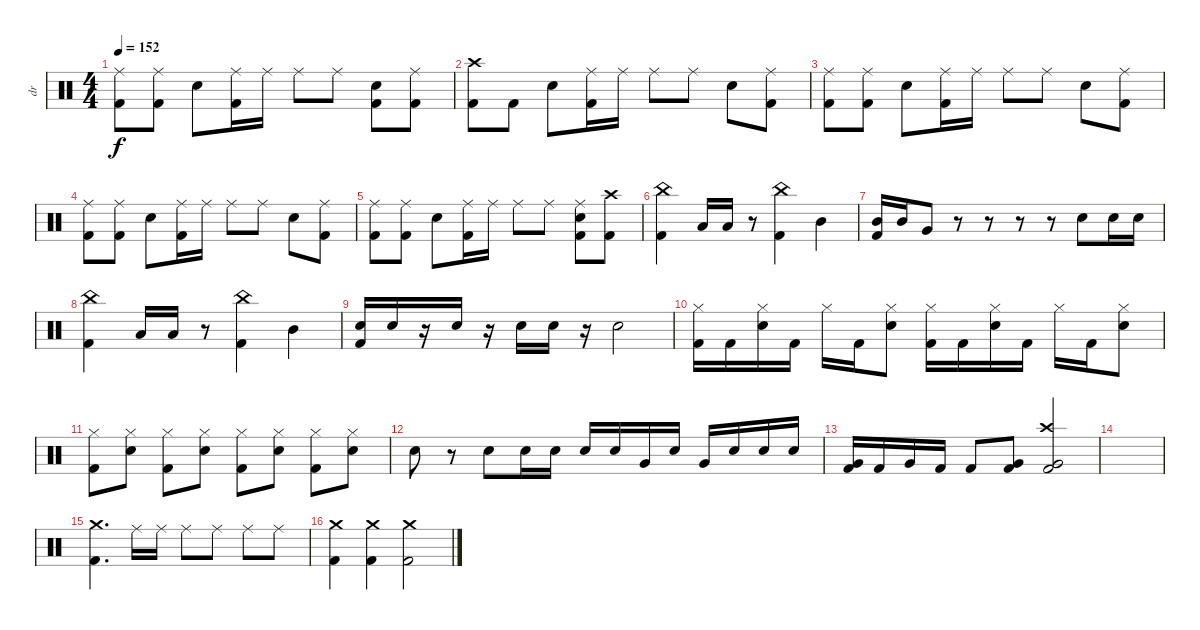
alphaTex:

\track ("dr" "dr") {instrument percussion}
\staff {score}
\articulation defaults
\ts (4 4)
\tempo 152
\clef neutral
\ks c
("Kick (hit) 2" "Ride (middle)").8{dy f} ("Kick (hit) 2" "Ride (middle)").8 "Electric Snare (hit)".8 ("Kick (hit) 2" "Ride (middle)").16 "Ride (middle)".16 "Ride (middle)".8 "Ride (middle)".8 ("Kick (hit) 2" "Electric Snare (hit)").8 ("Kick (hit) 2" "Ride (middle)").8 |
("Kick (hit) 2" "Crash high (hit)").8 "Kick (hit) 2".8 "Electric Snare (hit)".8 ("Kick (hit) 2" "Ride (middle)").16 "Ride (middle)".16 "Ride (middle)".8 "Ride (middle)".8 "Electric Snare (hit)".8 ("Kick (hit) 2" "Ride (middle)").8 |
("Kick (hit) 2" "Ride (middle)").8 ("Kick (hit) 2" "Ride (middle)").8 "Electric Snare (hit)".8 ("Kick (hit) 2" "Ride (middle)").16 "Ride (middle)".16 "Ride (middle)".8 "Ride (middle)".8 "Electric Snare (hit)".8 ("Kick (hit) 2" "Ride (middle)").8 |
("Kick (hit) 2" "Ride (middle)").8 ("Kick (hit) 2" "Ride (middle)").8 "Electric Snare (hit)".8 ("Kick (hit) 2" "Ride (middle)").16 "Ride (middle)".16 "Ride (middle)".8 "Ride (middle)".8 "Electric Snare (hit)".8 ("Kick (hit) 2" "Ride (middle)").8 |
("Kick (hit) 2" "Ride (middle)").8 ("Kick (hit) 2" "Ride (middle)").8 "Electric Snare (hit)".8 ("Kick (hit) 2" "Ride (middle)").16 "Ride (middle)".16 "Ride (middle)".8 "Ride (middle)".8 ("Kick (hit) 2" "Electric Snare (hit)" "Ride (middle)").8 ("Kick (hit) 2" "Crash high (hit)").8 |
("China (hit)" "Kick (hit) 2").4 "Low Tom (hit)".16 "Low Tom (hit)".16 r.8 ("China (hit)" "Kick (hit) 2").4 "Mid Tom (hit)".4 |
("Mid Tom (hit)" "Kick (hit) 2").16 "Mid Tom (hit)".16 "Very Low Tom (hit)".8 r.8 r.8 r.8 r.8 "Electric Snare (hit)".8 "Electric Snare (hit)".16 "Electric Snare (hit)".16 |
("China (hit)" "Kick (hit) 2").4 "Low Tom (hit)".16 "Low Tom (hit)".16 r.8 ("China (hit)" "Kick (hit) 2").4 "Mid Tom (hit)".4 |
("Electric Snare (hit)" "Kick (hit) 2").16 "Electric Snare (hit)".16 r.16 "Electric Snare (hit)".16 r.16 "Electric Snare (hit)".16 "Electric Snare (hit)".16 r.16 "Electric Snare (hit)".2 |
("Hi-Hat (closed)" "Kick (hit) 2").16 "Kick (hit) 2".16 ("Hi-Hat (closed)" "Electric Snare (hit)").16 "Kick (hit) 2".16 "Hi-Hat (closed)".16 "Kick (hit) 2".16 ("Hi-Hat (closed)" "Electric Snare (hit)").8 ("Hi-Hat (closed)" "Kick (hit) 2").16 "Kick (hit) 2".16 ("Hi-Hat (closed)" "Electric Snare (hit)").16 "Kick (hit) 2".16 "Hi-Hat (closed)".16 "Kick (hit) 2".16 ("Hi-Hat (closed)" "Electric Snare (hit)").8 |
("Hi-Hat (closed)" "Kick (hit) 2").8 ("Hi-Hat (closed)" "Electric Snare (hit)").8 ("Hi-Hat (closed)" "Kick (hit) 2").8 ("Hi-Hat (closed)" "Electric Snare (hit)").8 ("Hi-Hat (closed)" "Kick (hit) 2").8 ("Hi-Hat (closed)" "Electric Snare (hit)").8 ("Hi-Hat (closed)" "Kick (hit) 2").8 ("Hi-Hat (closed)" "Electric Snare (hit)").8 |
"Electric Snare (hit)".8 r.8 "Electric Snare (hit)".8 "Electric Snare (hit)".16 "Electric Snare (hit)".16 "Electric Snare (hit)".16 "Electric Snare (hit)".16 "Very Low Tom (hit)".16 "Electric Snare (hit)".16 "Very Low Tom (hit)".16 "Electric Snare (hit)".16 "Electric Snare (hit)".16 "Electric Snare (hit)".16 |
("Very Low Tom (hit)" "Kick (hit) 2").16 "Kick (hit) 2".16 "Very Low Tom (hit)".16 "Kick (hit) 2".16 "Kick (hit) 2".8 ("Very Low Tom (hit)" "Kick (hit) 2").8 ("Kick (hit) 2" "Very Low Tom (hit)" "Crash high (hit)").2 |
|
("Crash medium (hit)" "Kick (hit) 2").4{d} "Ride (middle)".16 "Ride (middle)".16 "Ride (middle)".8 "Ride (middle)".8 "Ride (middle)".8 "Ride (middle)".8 |
("Crash medium (hit)" "Kick (hit) 2").4 ("Crash medium (hit)" "Kick (hit) 2").4 ("Crash medium (hit)" "Kick (hit) 2").2
